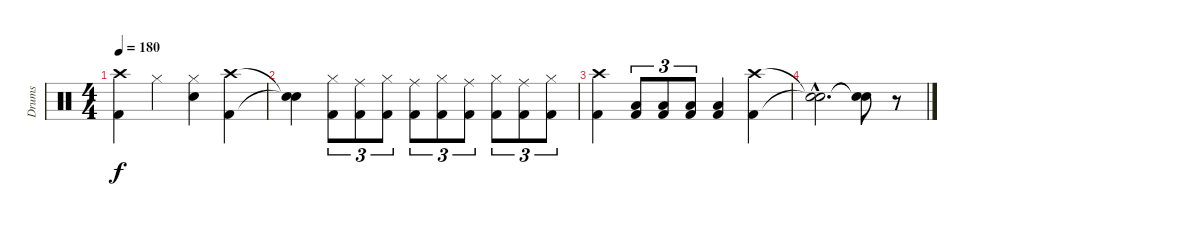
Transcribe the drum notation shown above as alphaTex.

\track ("Drums" "Drums") {instrument percussion}
\staff {score}
\articulation defaults
\ts (4 4)
\tempo 180
\clef neutral
\ks c
("Crash high (hit)" "Kick (hit) 2").4{dy f} "Hi-Hat (closed)".4 ("Hi-Hat (closed)" "Electric Snare (hit)").4 ("Crash high (hit)" "Kick (hit) 2").4 |
("Snare (hit)"{t} "Snare (hit)"{t}).4 ("Hi-Hat (closed)" "Kick (hit) 2").8{tu (3 2)} ("Ride (middle)" "Kick (hit) 2").8{tu (3 2)} ("Hi-Hat (closed)" "Kick (hit) 2").8{tu (3 2)} ("Ride (middle)" "Kick (hit) 2").8{tu (3 2)} ("Hi-Hat (closed)" "Kick (hit) 2").8{tu (3 2)} ("Ride (middle)" "Kick (hit) 2").8{tu (3 2)} ("Hi-Hat (closed)" "Kick (hit) 2").8{tu (3 2)} ("Ride (middle)" "Kick (hit) 2").8{tu (3 2)} ("Hi-Hat (closed)" "Kick (hit) 2").8{tu (3 2)} |
("Crash high (hit)" "Kick (hit) 2").4 ("Low Tom (hit)" "Kick (hit) 2").8{tu (3 2)} ("Low Tom (hit)" "Kick (hit) 2").8{tu (3 2)} ("Low Tom (hit)" "Kick (hit) 2").8{tu (3 2)} ("Low Tom (hit)" "Kick (hit) 2").4 ("Crash high (hit)" "Kick (hit) 2").4 |
("Snare (hit)"{hac t} "Snare (hit)"{hac t}).2{d} ("Snare (hit)"{t} "Snare (hit)"{t}).8 r.8
